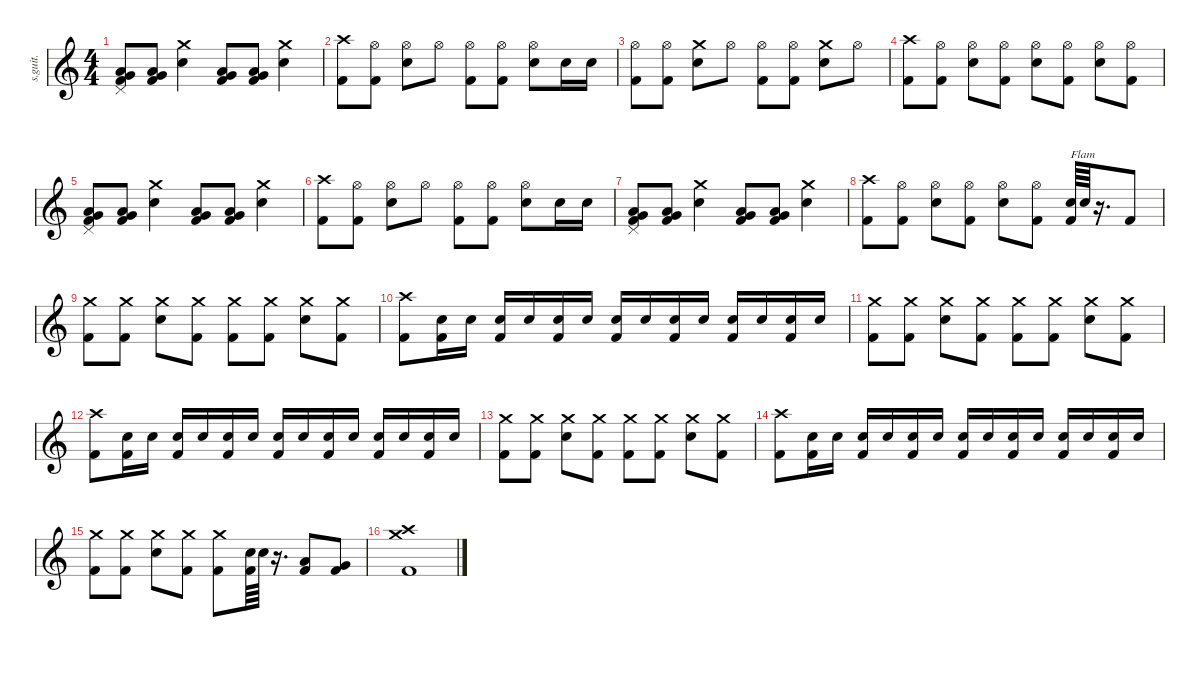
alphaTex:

\defaultSystemsLayout 4
\hideDynamics
\bracketExtendMode nobrackets
\track ("Dave Grohl - Drums" "s.guit.") {instrument percussion}
\staff {score}
\articulation defaults
\ts (4 4)
\tempo (100 hide)
\clef g2
\ks c
("Low Tom (hit)" "Kick (hit) 2" "Pedal Hi-Hat (hit)" "Very Low Tom (hit)").8{lyrics (0 "") lyrics (1 "") lyrics (2 "") lyrics (3 "") lyrics (4 "") dy ff} ("Low Tom (hit)" "Kick (hit) 2" "Very Low Tom (hit)").8{lyrics (0 "") lyrics (1 "") lyrics (2 "") lyrics (3 "") lyrics (4 "")} ("Snare (hit) 2" "Crash medium (hit)").4{lyrics (0 "") lyrics (1 "") lyrics (2 "") lyrics (3 "") lyrics (4 "")} ("Low Tom (hit)" "Kick (hit) 2" "Very Low Tom (hit)").8{lyrics (0 "") lyrics (1 "") lyrics (2 "") lyrics (3 "") lyrics (4 "")} ("Low Tom (hit)" "Kick (hit) 2" "Very Low Tom (hit)").8{lyrics (0 "") lyrics (1 "") lyrics (2 "") lyrics (3 "") lyrics (4 "")} ("Snare (hit) 2" "Crash medium (hit)").4{lyrics (0 "") lyrics (1 "") lyrics (2 "") lyrics (3 "") lyrics (4 "")} |
("Kick (hit) 2" "Crash high (hit)").8{lyrics (0 "") lyrics (1 "") lyrics (2 "") lyrics (3 "") lyrics (4 "")} ("Hi-Hat (open)" "Kick (hit) 2").8{lyrics (0 "") lyrics (1 "") lyrics (2 "") lyrics (3 "") lyrics (4 "")} ("Snare (hit) 2" "Hi-Hat (open)").8{lyrics (0 "") lyrics (1 "") lyrics (2 "") lyrics (3 "") lyrics (4 "")} "Hi-Hat (open)".8{lyrics (0 "") lyrics (1 "") lyrics (2 "") lyrics (3 "") lyrics (4 "")} ("Hi-Hat (open)" "Kick (hit) 2").8{lyrics (0 "") lyrics (1 "") lyrics (2 "") lyrics (3 "") lyrics (4 "")} ("Hi-Hat (open)" "Kick (hit) 2").8{lyrics (0 "") lyrics (1 "") lyrics (2 "") lyrics (3 "") lyrics (4 "") dy f} ("Snare (hit) 2" "Hi-Hat (open)").8{lyrics (0 "") lyrics (1 "") lyrics (2 "") lyrics (3 "") lyrics (4 "") dy ff} "Snare (hit) 2".16{lyrics (0 "") lyrics (1 "") lyrics (2 "") lyrics (3 "") lyrics (4 "")} "Snare (hit) 2".16{lyrics (0 "") lyrics (1 "") lyrics (2 "") lyrics (3 "") lyrics (4 "")} |
("Kick (hit) 2" "Hi-Hat (open)").8{lyrics (0 "") lyrics (1 "") lyrics (2 "") lyrics (3 "") lyrics (4 "")} ("Kick (hit) 2" "Hi-Hat (open)").8{lyrics (0 "") lyrics (1 "") lyrics (2 "") lyrics (3 "") lyrics (4 "")} ("Snare (hit) 2" "Crash medium (hit)").8{lyrics (0 "") lyrics (1 "") lyrics (2 "") lyrics (3 "") lyrics (4 "")} "Hi-Hat (open)".8{lyrics (0 "") lyrics (1 "") lyrics (2 "") lyrics (3 "") lyrics (4 "")} ("Kick (hit) 2" "Hi-Hat (open)").8{lyrics (0 "") lyrics (1 "") lyrics (2 "") lyrics (3 "") lyrics (4 "")} ("Kick (hit) 2" "Hi-Hat (open)").8{lyrics (0 "") lyrics (1 "") lyrics (2 "") lyrics (3 "") lyrics (4 "")} ("Snare (hit) 2" "Crash medium (hit)").8{lyrics (0 "") lyrics (1 "") lyrics (2 "") lyrics (3 "") lyrics (4 "")} "Hi-Hat (open)".8{lyrics (0 "") lyrics (1 "") lyrics (2 "") lyrics (3 "") lyrics (4 "")} |
("Kick (hit) 2" "Crash high (hit)").8{lyrics (0 "") lyrics (1 "") lyrics (2 "") lyrics (3 "") lyrics (4 "")} ("Hi-Hat (open)" "Kick (hit) 2").8{lyrics (0 "") lyrics (1 "") lyrics (2 "") lyrics (3 "") lyrics (4 "")} ("Snare (hit) 2" "Hi-Hat (open)").8{lyrics (0 "") lyrics (1 "") lyrics (2 "") lyrics (3 "") lyrics (4 "")} ("Hi-Hat (open)" "Kick (hit) 2").8{lyrics (0 "") lyrics (1 "") lyrics (2 "") lyrics (3 "") lyrics (4 "")} ("Snare (hit) 2" "Hi-Hat (open)").8{lyrics (0 "") lyrics (1 "") lyrics (2 "") lyrics (3 "") lyrics (4 "")} ("Hi-Hat (open)" "Kick (hit) 2").8{lyrics (0 "") lyrics (1 "") lyrics (2 "") lyrics (3 "") lyrics (4 "")} ("Snare (hit) 2" "Hi-Hat (open)").8{lyrics (0 "") lyrics (1 "") lyrics (2 "") lyrics (3 "") lyrics (4 "")} ("Hi-Hat (open)" "Kick (hit) 2").8{lyrics (0 "") lyrics (1 "") lyrics (2 "") lyrics (3 "") lyrics (4 "")} |
("Low Tom (hit)" "Kick (hit) 2" "Very Low Tom (hit)" "Pedal Hi-Hat (hit)").8{lyrics (0 "") lyrics (1 "") lyrics (2 "") lyrics (3 "") lyrics (4 "")} ("Low Tom (hit)" "Kick (hit) 2" "Very Low Tom (hit)").8{lyrics (0 "") lyrics (1 "") lyrics (2 "") lyrics (3 "") lyrics (4 "")} ("Snare (hit) 2" "Crash medium (hit)").4{lyrics (0 "") lyrics (1 "") lyrics (2 "") lyrics (3 "") lyrics (4 "")} ("Low Tom (hit)" "Kick (hit) 2" "Very Low Tom (hit)").8{lyrics (0 "") lyrics (1 "") lyrics (2 "") lyrics (3 "") lyrics (4 "")} ("Low Tom (hit)" "Kick (hit) 2" "Very Low Tom (hit)").8{lyrics (0 "") lyrics (1 "") lyrics (2 "") lyrics (3 "") lyrics (4 "")} ("Snare (hit) 2" "Crash medium (hit)").4{lyrics (0 "") lyrics (1 "") lyrics (2 "") lyrics (3 "") lyrics (4 "")} |
("Kick (hit) 2" "Crash high (hit)").8{lyrics (0 "") lyrics (1 "") lyrics (2 "") lyrics (3 "") lyrics (4 "")} ("Hi-Hat (open)" "Kick (hit) 2").8{lyrics (0 "") lyrics (1 "") lyrics (2 "") lyrics (3 "") lyrics (4 "")} ("Snare (hit) 2" "Hi-Hat (open)").8{lyrics (0 "") lyrics (1 "") lyrics (2 "") lyrics (3 "") lyrics (4 "")} "Hi-Hat (open)".8{lyrics (0 "") lyrics (1 "") lyrics (2 "") lyrics (3 "") lyrics (4 "")} ("Hi-Hat (open)" "Kick (hit) 2").8{lyrics (0 "") lyrics (1 "") lyrics (2 "") lyrics (3 "") lyrics (4 "")} ("Hi-Hat (open)" "Kick (hit) 2").8{lyrics (0 "") lyrics (1 "") lyrics (2 "") lyrics (3 "") lyrics (4 "") dy f} ("Snare (hit) 2" "Hi-Hat (open)").8{lyrics (0 "") lyrics (1 "") lyrics (2 "") lyrics (3 "") lyrics (4 "") dy ff} "Snare (hit) 2".16{lyrics (0 "") lyrics (1 "") lyrics (2 "") lyrics (3 "") lyrics (4 "")} "Snare (hit) 2".16{lyrics (0 "") lyrics (1 "") lyrics (2 "") lyrics (3 "") lyrics (4 "")} |
("Low Tom (hit)" "Kick (hit) 2" "Very Low Tom (hit)" "Pedal Hi-Hat (hit)").8{lyrics (0 "") lyrics (1 "") lyrics (2 "") lyrics (3 "") lyrics (4 "")} ("Low Tom (hit)" "Kick (hit) 2" "Very Low Tom (hit)").8{lyrics (0 "") lyrics (1 "") lyrics (2 "") lyrics (3 "") lyrics (4 "")} ("Snare (hit) 2" "Crash medium (hit)").4{lyrics (0 "") lyrics (1 "") lyrics (2 "") lyrics (3 "") lyrics (4 "")} ("Low Tom (hit)" "Kick (hit) 2" "Very Low Tom (hit)").8{lyrics (0 "") lyrics (1 "") lyrics (2 "") lyrics (3 "") lyrics (4 "")} ("Low Tom (hit)" "Kick (hit) 2" "Very Low Tom (hit)").8{lyrics (0 "") lyrics (1 "") lyrics (2 "") lyrics (3 "") lyrics (4 "")} ("Snare (hit) 2" "Crash medium (hit)").4{lyrics (0 "") lyrics (1 "") lyrics (2 "") lyrics (3 "") lyrics (4 "")} |
("Kick (hit) 2" "Crash high (hit)").8{lyrics (0 "") lyrics (1 "") lyrics (2 "") lyrics (3 "") lyrics (4 "")} ("Hi-Hat (open)" "Kick (hit) 2").8{lyrics (0 "") lyrics (1 "") lyrics (2 "") lyrics (3 "") lyrics (4 "")} ("Snare (hit) 2" "Hi-Hat (open)").8{lyrics (0 "") lyrics (1 "") lyrics (2 "") lyrics (3 "") lyrics (4 "")} ("Hi-Hat (open)" "Kick (hit) 2").8{lyrics (0 "") lyrics (1 "") lyrics (2 "") lyrics (3 "") lyrics (4 "")} ("Snare (hit) 2" "Hi-Hat (open)").8{lyrics (0 "") lyrics (1 "") lyrics (2 "") lyrics (3 "") lyrics (4 "")} ("Hi-Hat (open)" "Kick (hit) 2").8{lyrics (0 "") lyrics (1 "") lyrics (2 "") lyrics (3 "") lyrics (4 "")} ("Snare (hit) 2" "Kick (hit) 2").64{txt "Flam" lyrics (0 "") lyrics (1 "") lyrics (2 "") lyrics (3 "") lyrics (4 "")} "Snare (hit) 2".64{lyrics (0 "") lyrics (1 "") lyrics (2 "") lyrics (3 "") lyrics (4 "")} r.16{d} "Kick (hit) 2".8{lyrics (0 "") lyrics (1 "") lyrics (2 "") lyrics (3 "") lyrics (4 "")} |
("Crash medium (hit)" "Kick (hit) 2").8{lyrics (0 "") lyrics (1 "") lyrics (2 "") lyrics (3 "") lyrics (4 "")} ("Crash medium (hit)" "Kick (hit) 2").8{lyrics (0 "") lyrics (1 "") lyrics (2 "") lyrics (3 "") lyrics (4 "")} ("Snare (hit) 2" "Crash medium (hit)").8{lyrics (0 "") lyrics (1 "") lyrics (2 "") lyrics (3 "") lyrics (4 "")} ("Crash medium (hit)" "Kick (hit) 2").8{lyrics (0 "") lyrics (1 "") lyrics (2 "") lyrics (3 "") lyrics (4 "")} ("Crash medium (hit)" "Kick (hit) 2").8{lyrics (0 "") lyrics (1 "") lyrics (2 "") lyrics (3 "") lyrics (4 "")} ("Crash medium (hit)" "Kick (hit) 2").8{lyrics (0 "") lyrics (1 "") lyrics (2 "") lyrics (3 "") lyrics (4 "")} ("Snare (hit) 2" "Crash medium (hit)").8{lyrics (0 "") lyrics (1 "") lyrics (2 "") lyrics (3 "") lyrics (4 "")} ("Crash medium (hit)" "Kick (hit) 2").8{lyrics (0 "") lyrics (1 "") lyrics (2 "") lyrics (3 "") lyrics (4 "")} |
("Kick (hit) 2" "Crash high (hit)").8{lyrics (0 "") lyrics (1 "") lyrics (2 "") lyrics (3 "") lyrics (4 "")} ("Snare (hit) 2" "Kick (hit) 2").16{lyrics (0 "") lyrics (1 "") lyrics (2 "") lyrics (3 "") lyrics (4 "")} "Snare (hit) 2".16{lyrics (0 "") lyrics (1 "") lyrics (2 "") lyrics (3 "") lyrics (4 "")} ("Snare (hit) 2" "Kick (hit) 2").16{lyrics (0 "") lyrics (1 "") lyrics (2 "") lyrics (3 "") lyrics (4 "")} "Snare (hit) 2".16{lyrics (0 "") lyrics (1 "") lyrics (2 "") lyrics (3 "") lyrics (4 "")} ("Snare (hit) 2" "Kick (hit) 2").16{lyrics (0 "") lyrics (1 "") lyrics (2 "") lyrics (3 "") lyrics (4 "")} "Snare (hit) 2".16{lyrics (0 "") lyrics (1 "") lyrics (2 "") lyrics (3 "") lyrics (4 "")} ("Snare (hit) 2" "Kick (hit) 2").16{lyrics (0 "") lyrics (1 "") lyrics (2 "") lyrics (3 "") lyrics (4 "")} "Snare (hit) 2".16{lyrics (0 "") lyrics (1 "") lyrics (2 "") lyrics (3 "") lyrics (4 "")} ("Snare (hit) 2" "Kick (hit) 2").16{lyrics (0 "") lyrics (1 "") lyrics (2 "") lyrics (3 "") lyrics (4 "")} "Snare (hit) 2".16{lyrics (0 "") lyrics (1 "") lyrics (2 "") lyrics (3 "") lyrics (4 "")} ("Snare (hit) 2" "Kick (hit) 2").16{lyrics (0 "") lyrics (1 "") lyrics (2 "") lyrics (3 "") lyrics (4 "")} "Snare (hit) 2".16{lyrics (0 "") lyrics (1 "") lyrics (2 "") lyrics (3 "") lyrics (4 "")} ("Snare (hit) 2" "Kick (hit) 2").16{lyrics (0 "") lyrics (1 "") lyrics (2 "") lyrics (3 "") lyrics (4 "")} "Snare (hit) 2".16{lyrics (0 "") lyrics (1 "") lyrics (2 "") lyrics (3 "") lyrics (4 "")} |
("Crash medium (hit)" "Kick (hit) 2").8{lyrics (0 "") lyrics (1 "") lyrics (2 "") lyrics (3 "") lyrics (4 "")} ("Crash medium (hit)" "Kick (hit) 2").8{lyrics (0 "") lyrics (1 "") lyrics (2 "") lyrics (3 "") lyrics (4 "")} ("Snare (hit) 2" "Crash medium (hit)").8{lyrics (0 "") lyrics (1 "") lyrics (2 "") lyrics (3 "") lyrics (4 "")} ("Crash medium (hit)" "Kick (hit) 2").8{lyrics (0 "") lyrics (1 "") lyrics (2 "") lyrics (3 "") lyrics (4 "")} ("Crash medium (hit)" "Kick (hit) 2").8{lyrics (0 "") lyrics (1 "") lyrics (2 "") lyrics (3 "") lyrics (4 "")} ("Crash medium (hit)" "Kick (hit) 2").8{lyrics (0 "") lyrics (1 "") lyrics (2 "") lyrics (3 "") lyrics (4 "")} ("Snare (hit) 2" "Crash medium (hit)").8{lyrics (0 "") lyrics (1 "") lyrics (2 "") lyrics (3 "") lyrics (4 "")} ("Crash medium (hit)" "Kick (hit) 2").8{lyrics (0 "") lyrics (1 "") lyrics (2 "") lyrics (3 "") lyrics (4 "")} |
("Kick (hit) 2" "Crash high (hit)").8{lyrics (0 "") lyrics (1 "") lyrics (2 "") lyrics (3 "") lyrics (4 "")} ("Snare (hit) 2" "Kick (hit) 2").16{lyrics (0 "") lyrics (1 "") lyrics (2 "") lyrics (3 "") lyrics (4 "")} "Snare (hit) 2".16{lyrics (0 "") lyrics (1 "") lyrics (2 "") lyrics (3 "") lyrics (4 "")} ("Snare (hit) 2" "Kick (hit) 2").16{lyrics (0 "") lyrics (1 "") lyrics (2 "") lyrics (3 "") lyrics (4 "")} "Snare (hit) 2".16{lyrics (0 "") lyrics (1 "") lyrics (2 "") lyrics (3 "") lyrics (4 "")} ("Snare (hit) 2" "Kick (hit) 2").16{lyrics (0 "") lyrics (1 "") lyrics (2 "") lyrics (3 "") lyrics (4 "")} "Snare (hit) 2".16{lyrics (0 "") lyrics (1 "") lyrics (2 "") lyrics (3 "") lyrics (4 "")} ("Snare (hit) 2" "Kick (hit) 2").16{lyrics (0 "") lyrics (1 "") lyrics (2 "") lyrics (3 "") lyrics (4 "")} "Snare (hit) 2".16{lyrics (0 "") lyrics (1 "") lyrics (2 "") lyrics (3 "") lyrics (4 "")} ("Snare (hit) 2" "Kick (hit) 2").16{lyrics (0 "") lyrics (1 "") lyrics (2 "") lyrics (3 "") lyrics (4 "")} "Snare (hit) 2".16{lyrics (0 "") lyrics (1 "") lyrics (2 "") lyrics (3 "") lyrics (4 "")} ("Snare (hit) 2" "Kick (hit) 2").16{lyrics (0 "") lyrics (1 "") lyrics (2 "") lyrics (3 "") lyrics (4 "")} "Snare (hit) 2".16{lyrics (0 "") lyrics (1 "") lyrics (2 "") lyrics (3 "") lyrics (4 "")} ("Snare (hit) 2" "Kick (hit) 2").16{lyrics (0 "") lyrics (1 "") lyrics (2 "") lyrics (3 "") lyrics (4 "")} "Snare (hit) 2".16{lyrics (0 "") lyrics (1 "") lyrics (2 "") lyrics (3 "") lyrics (4 "")} |
("Crash medium (hit)" "Kick (hit) 2").8{lyrics (0 "") lyrics (1 "") lyrics (2 "") lyrics (3 "") lyrics (4 "")} ("Crash medium (hit)" "Kick (hit) 2").8{lyrics (0 "") lyrics (1 "") lyrics (2 "") lyrics (3 "") lyrics (4 "")} ("Snare (hit) 2" "Crash medium (hit)").8{lyrics (0 "") lyrics (1 "") lyrics (2 "") lyrics (3 "") lyrics (4 "")} ("Crash medium (hit)" "Kick (hit) 2").8{lyrics (0 "") lyrics (1 "") lyrics (2 "") lyrics (3 "") lyrics (4 "")} ("Crash medium (hit)" "Kick (hit) 2").8{lyrics (0 "") lyrics (1 "") lyrics (2 "") lyrics (3 "") lyrics (4 "")} ("Crash medium (hit)" "Kick (hit) 2").8{lyrics (0 "") lyrics (1 "") lyrics (2 "") lyrics (3 "") lyrics (4 "")} ("Snare (hit) 2" "Crash medium (hit)").8{lyrics (0 "") lyrics (1 "") lyrics (2 "") lyrics (3 "") lyrics (4 "")} ("Crash medium (hit)" "Kick (hit) 2").8{lyrics (0 "") lyrics (1 "") lyrics (2 "") lyrics (3 "") lyrics (4 "")} |
("Kick (hit) 2" "Crash high (hit)").8{lyrics (0 "") lyrics (1 "") lyrics (2 "") lyrics (3 "") lyrics (4 "")} ("Snare (hit) 2" "Kick (hit) 2").16{lyrics (0 "") lyrics (1 "") lyrics (2 "") lyrics (3 "") lyrics (4 "")} "Snare (hit) 2".16{lyrics (0 "") lyrics (1 "") lyrics (2 "") lyrics (3 "") lyrics (4 "")} ("Snare (hit) 2" "Kick (hit) 2").16{lyrics (0 "") lyrics (1 "") lyrics (2 "") lyrics (3 "") lyrics (4 "")} "Snare (hit) 2".16{lyrics (0 "") lyrics (1 "") lyrics (2 "") lyrics (3 "") lyrics (4 "")} ("Snare (hit) 2" "Kick (hit) 2").16{lyrics (0 "") lyrics (1 "") lyrics (2 "") lyrics (3 "") lyrics (4 "")} "Snare (hit) 2".16{lyrics (0 "") lyrics (1 "") lyrics (2 "") lyrics (3 "") lyrics (4 "")} ("Snare (hit) 2" "Kick (hit) 2").16{lyrics (0 "") lyrics (1 "") lyrics (2 "") lyrics (3 "") lyrics (4 "")} "Snare (hit) 2".16{lyrics (0 "") lyrics (1 "") lyrics (2 "") lyrics (3 "") lyrics (4 "")} ("Snare (hit) 2" "Kick (hit) 2").16{lyrics (0 "") lyrics (1 "") lyrics (2 "") lyrics (3 "") lyrics (4 "")} "Snare (hit) 2".16{lyrics (0 "") lyrics (1 "") lyrics (2 "") lyrics (3 "") lyrics (4 "")} ("Snare (hit) 2" "Kick (hit) 2").16{lyrics (0 "") lyrics (1 "") lyrics (2 "") lyrics (3 "") lyrics (4 "")} "Snare (hit) 2".16{lyrics (0 "") lyrics (1 "") lyrics (2 "") lyrics (3 "") lyrics (4 "")} ("Snare (hit) 2" "Kick (hit) 2").16{lyrics (0 "") lyrics (1 "") lyrics (2 "") lyrics (3 "") lyrics (4 "")} "Snare (hit) 2".16{lyrics (0 "") lyrics (1 "") lyrics (2 "") lyrics (3 "") lyrics (4 "")} |
("Crash medium (hit)" "Kick (hit) 2").8{lyrics (0 "") lyrics (1 "") lyrics (2 "") lyrics (3 "") lyrics (4 "")} ("Crash medium (hit)" "Kick (hit) 2").8{lyrics (0 "") lyrics (1 "") lyrics (2 "") lyrics (3 "") lyrics (4 "")} ("Snare (hit) 2" "Crash medium (hit)").8{lyrics (0 "") lyrics (1 "") lyrics (2 "") lyrics (3 "") lyrics (4 "")} ("Crash medium (hit)" "Kick (hit) 2").8{lyrics (0 "") lyrics (1 "") lyrics (2 "") lyrics (3 "") lyrics (4 "")} ("Crash medium (hit)" "Kick (hit) 2").8{lyrics (0 "") lyrics (1 "") lyrics (2 "") lyrics (3 "") lyrics (4 "")} ("Kick (hit) 2" "Snare (hit) 2").64{lyrics (0 "") lyrics (1 "") lyrics (2 "") lyrics (3 "") lyrics (4 "")} "Snare (hit) 2".64{lyrics (0 "") lyrics (1 "") lyrics (2 "") lyrics (3 "") lyrics (4 "")} r.16{d} ("Kick (hit) 2" "Low Tom (hit)").8{lyrics (0 "") lyrics (1 "") lyrics (2 "") lyrics (3 "") lyrics (4 "")} ("Kick (hit) 2" "Very Low Tom (hit)").8{lyrics (0 "") lyrics (1 "") lyrics (2 "") lyrics (3 "") lyrics (4 "")} |
("Crash medium (hit)" "Kick (hit) 2" "Crash high (hit)").1{lyrics (0 "") lyrics (1 "") lyrics (2 "") lyrics (3 "") lyrics (4 "")}
